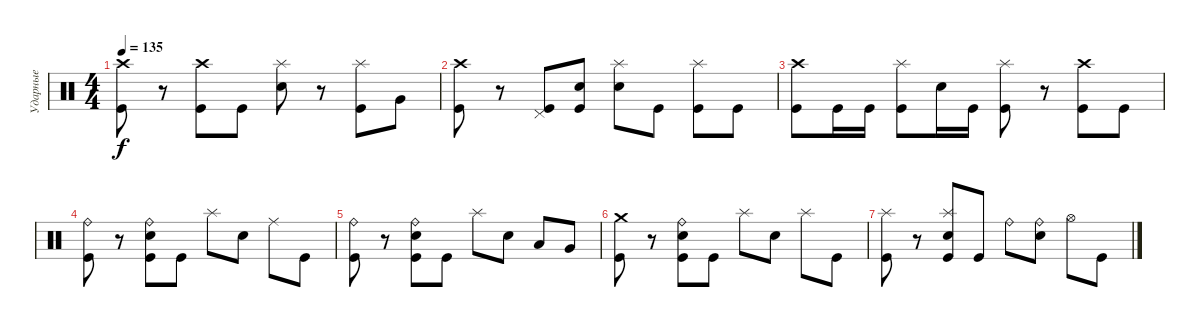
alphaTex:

\track ("Ударные" "Ударные") {instrument percussion}
\staff {score}
\articulation defaults
\ts (4 4)
\tempo 135
\clef neutral
\ks c
("Crash high (hit)" "Kick (hit)").8{dy f} r.8 ("Crash high (hit)" "Kick (hit)").8 "Kick (hit)".8 ("Splash (hit)" "Electric Snare (hit)").8 r.8 ("Splash (hit)" "Kick (hit)").8 "Very Low Tom (hit)".8 |
("Crash high (hit)" "Kick (hit)").8 r.8 ("Pedal Hi-Hat (hit)" "Kick (hit)").8 ("Electric Snare (hit)" "Kick (hit)").8 ("Splash (hit)" "Electric Snare (hit)").8 "Kick (hit)".8 ("Splash (hit)" "Kick (hit)").8 "Kick (hit)".8 |
("Crash high (hit)" "Kick (hit)").8 "Kick (hit)".16 "Kick (hit)".16 ("Splash (hit)" "Kick (hit)").8 "Electric Snare (hit)".16 "Kick (hit)".16 ("Splash (hit)" "Kick (hit)").8 r.8 ("Crash high (hit)" "Kick (hit)").8 "Kick (hit)".8 |
("Ride (bell)" "Kick (hit)").8 r.8 ("Ride (bell)" "Electric Snare (hit)" "Kick (hit)").8 "Kick (hit)".8 "Splash (hit)".8 "Electric Snare (hit)".8 "Ride (middle)".8 "Kick (hit)".8 |
("Ride (bell)" "Kick (hit)").8 r.8 ("Ride (bell)" "Electric Snare (hit)" "Kick (hit)").8 "Kick (hit)".8 "Splash (hit)".8 "Electric Snare (hit)".8 "Low Floor Tom (hit)".8 "Very Low Tom (hit)".8 |
("Crash medium (hit)" "Kick (hit)").8 r.8 ("Ride (bell)" "Electric Snare (hit)" "Kick (hit)").8 "Kick (hit)".8 "Splash (hit)".8 "Electric Snare (hit)".8 "Splash (hit)".8 "Kick (hit)".8 |
("Splash (hit)" "Kick (hit)").8 r.8 ("Splash (hit)" "Electric Snare (hit)" "Kick (hit)").8 "Kick (hit)".8 "Ride (bell)".8 ("Ride (bell)" "Electric Snare (hit)").8 "Hi-Hat (open)".8 "Kick (hit)".8
